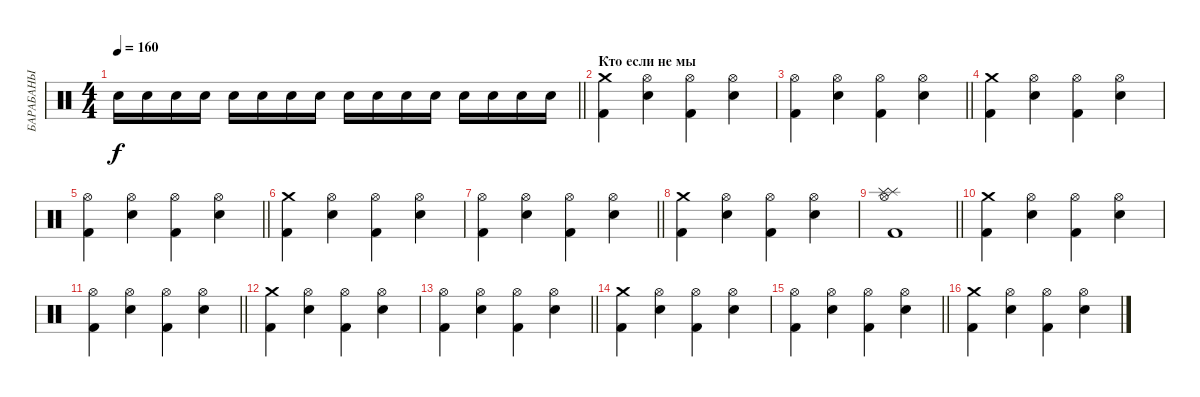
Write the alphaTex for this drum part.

\track ("БАРАБАНЫ" "БАРАБАНЫ") {instrument percussion}
\staff {score}
\articulation defaults
\ts (4 4)
\tempo 160
\clef neutral
\barLineRight lightlight
\ks c "Snare (hit) 2".16{dy f} "Snare (hit) 2".16 "Snare (hit) 2".16 "Snare (hit) 2".16 "Snare (hit) 2".16 "Snare (hit) 2".16 "Snare (hit) 2".16 "Snare (hit) 2".16 "Snare (hit) 2".16 "Snare (hit) 2".16 "Snare (hit) 2".16 "Snare (hit) 2".16 "Snare (hit) 2".16 "Snare (hit) 2".16 "Snare (hit) 2".16 "Snare (hit) 2".16
|
\section ("" "Кто если не мы")
("Crash medium (hit)" "Kick (hit) 2").4 ("Hi-Hat (open)" "Snare (hit) 2").4 ("Hi-Hat (open)" "Kick (hit) 2").4 ("Hi-Hat (open)" "Snare (hit) 2").4 |
\barLineRight lightlight
("Hi-Hat (open)" "Kick (hit) 2").4 ("Hi-Hat (open)" "Snare (hit) 2").4 ("Hi-Hat (open)" "Kick (hit) 2").4 ("Hi-Hat (open)" "Snare (hit) 2").4 |
("Crash medium (hit)" "Kick (hit) 2").4 ("Hi-Hat (open)" "Snare (hit) 2").4 ("Hi-Hat (open)" "Kick (hit) 2").4 ("Hi-Hat (open)" "Snare (hit) 2").4 |
\barLineRight lightlight
("Hi-Hat (open)" "Kick (hit) 2").4 ("Hi-Hat (open)" "Snare (hit) 2").4 ("Hi-Hat (open)" "Kick (hit) 2").4 ("Hi-Hat (open)" "Snare (hit) 2").4 |
("Crash medium (hit)" "Kick (hit) 2").4 ("Hi-Hat (open)" "Snare (hit) 2").4 ("Hi-Hat (open)" "Kick (hit) 2").4 ("Hi-Hat (open)" "Snare (hit) 2").4 |
\barLineRight lightlight
("Hi-Hat (open)" "Kick (hit) 2").4 ("Hi-Hat (open)" "Snare (hit) 2").4 ("Hi-Hat (open)" "Kick (hit) 2").4 ("Hi-Hat (open)" "Snare (hit) 2").4 |
("Crash medium (hit)" "Kick (hit) 2").4 ("Hi-Hat (open)" "Snare (hit) 2").4 ("Hi-Hat (open)" "Kick (hit) 2").4 ("Hi-Hat (open)" "Snare (hit) 2").4 |
\barLineRight lightlight
("Hi-Hat (open)" "Kick (hit) 2" "Splash (hit)" "Splash (hit)").1 |
("Crash medium (hit)" "Kick (hit) 2").4 ("Hi-Hat (open)" "Snare (hit) 2").4 ("Hi-Hat (open)" "Kick (hit) 2").4 ("Hi-Hat (open)" "Snare (hit) 2").4 |
\barLineRight lightlight
("Hi-Hat (open)" "Kick (hit) 2").4 ("Hi-Hat (open)" "Snare (hit) 2").4 ("Hi-Hat (open)" "Kick (hit) 2").4 ("Hi-Hat (open)" "Snare (hit) 2").4 |
("Crash medium (hit)" "Kick (hit) 2").4 ("Hi-Hat (open)" "Snare (hit) 2").4 ("Hi-Hat (open)" "Kick (hit) 2").4 ("Hi-Hat (open)" "Snare (hit) 2").4 |
\barLineRight lightlight
("Hi-Hat (open)" "Kick (hit) 2").4 ("Hi-Hat (open)" "Snare (hit) 2").4 ("Hi-Hat (open)" "Kick (hit) 2").4 ("Hi-Hat (open)" "Snare (hit) 2").4 |
("Crash medium (hit)" "Kick (hit) 2").4 ("Hi-Hat (open)" "Snare (hit) 2").4 ("Hi-Hat (open)" "Kick (hit) 2").4 ("Hi-Hat (open)" "Snare (hit) 2").4 |
\barLineRight lightlight
("Hi-Hat (open)" "Kick (hit) 2").4 ("Hi-Hat (open)" "Snare (hit) 2").4 ("Hi-Hat (open)" "Kick (hit) 2").4 ("Hi-Hat (open)" "Snare (hit) 2").4 |
("Crash medium (hit)" "Kick (hit) 2").4 ("Hi-Hat (open)" "Snare (hit) 2").4 ("Hi-Hat (open)" "Kick (hit) 2").4 ("Hi-Hat (open)" "Snare (hit) 2").4
